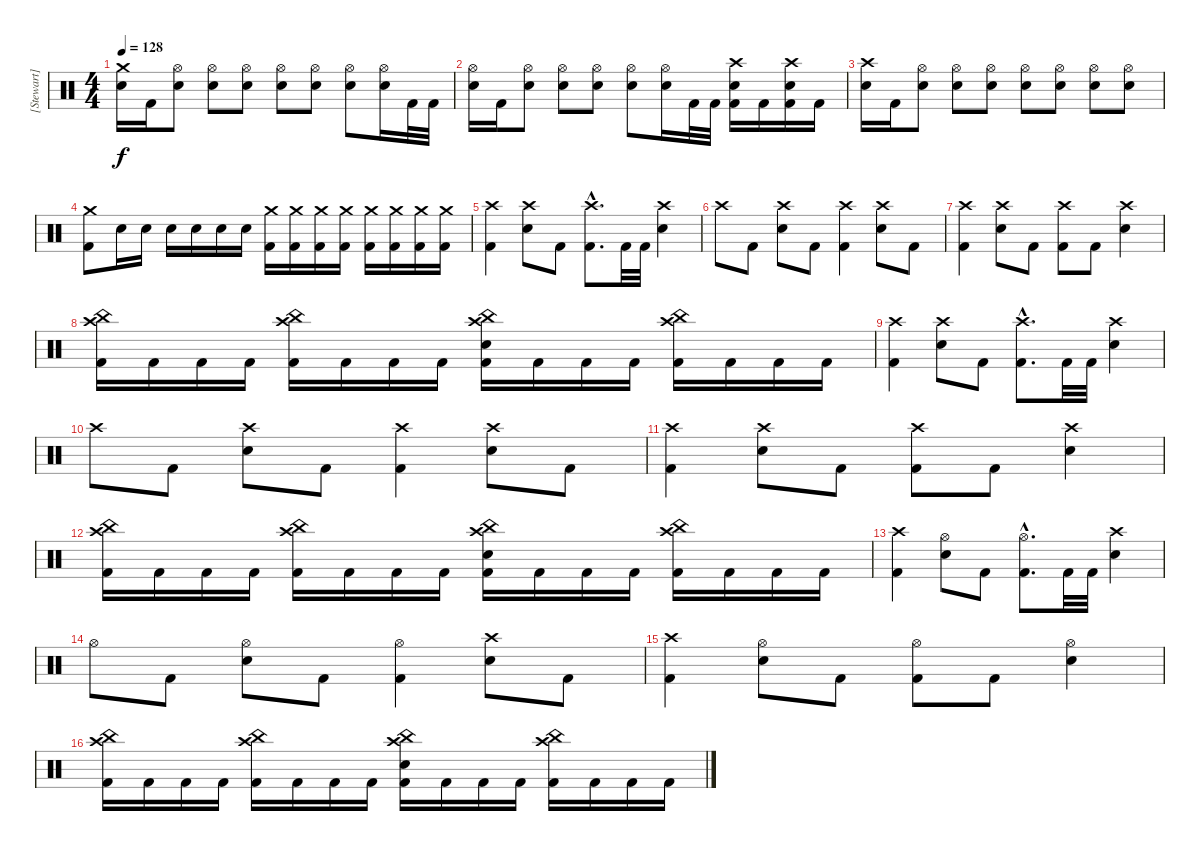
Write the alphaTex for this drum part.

\track ("[Stewart]" "[Stewart]") {instrument percussion}
\staff {score}
\articulation defaults
\ts (4 4)
\tempo 128
\clef neutral
\ks c
("Crash medium (hit)" "Electric Snare (hit)").16{dy f} "Kick (hit) 2".16 ("Hi-Hat (open)" "Electric Snare (hit)").8 ("Hi-Hat (open)" "Electric Snare (hit)").8 ("Hi-Hat (open)" "Electric Snare (hit)").8 ("Hi-Hat (open)" "Electric Snare (hit)").8 ("Hi-Hat (open)" "Electric Snare (hit)").8 ("Hi-Hat (open)" "Electric Snare (hit)").8 ("Hi-Hat (open)" "Electric Snare (hit)").16 "Kick (hit) 2".32 "Kick (hit) 2".32 |
("Hi-Hat (open)" "Electric Snare (hit)").16 "Kick (hit) 2".16 ("Hi-Hat (open)" "Electric Snare (hit)").8 ("Hi-Hat (open)" "Electric Snare (hit)").8 ("Hi-Hat (open)" "Electric Snare (hit)").8 ("Hi-Hat (open)" "Electric Snare (hit)").8 ("Hi-Hat (open)" "Electric Snare (hit)").16 "Kick (hit) 2".32 "Kick (hit) 2".32 ("Crash high (hit)" "Electric Snare (hit)" "Kick (hit) 2").16 "Kick (hit) 2".16 ("Crash high (hit)" "Electric Snare (hit)" "Kick (hit) 2").16 "Kick (hit) 2".16 |
("Crash high (hit)" "Electric Snare (hit)").16 "Kick (hit) 2".16 ("Hi-Hat (open)" "Electric Snare (hit)").8 ("Hi-Hat (open)" "Electric Snare (hit)").8 ("Hi-Hat (open)" "Electric Snare (hit)").8 ("Hi-Hat (open)" "Electric Snare (hit)").8 ("Hi-Hat (open)" "Electric Snare (hit)").8 ("Hi-Hat (open)" "Electric Snare (hit)").8 ("Hi-Hat (open)" "Electric Snare (hit)").8 |
("Crash medium (hit)" "Kick (hit) 2").8 "Electric Snare (hit)".16 "Electric Snare (hit)".16 "Electric Snare (hit)".16 "Electric Snare (hit)".16 "Electric Snare (hit)".16 "Electric Snare (hit)".16 ("Crash medium (hit)" "Kick (hit) 2").16 ("Crash medium (hit)" "Kick (hit) 2").16 ("Crash medium (hit)" "Kick (hit) 2").16 ("Crash medium (hit)" "Kick (hit) 2").16 ("Crash medium (hit)" "Kick (hit) 2").16 ("Crash medium (hit)" "Kick (hit) 2").16 ("Crash medium (hit)" "Kick (hit) 2").16 ("Crash medium (hit)" "Kick (hit) 2").16 |
("Crash high (hit)" "Kick (hit) 2").4 ("Crash high (hit)" "Electric Snare (hit)").8 "Kick (hit) 2".8 ("Crash high (hit)"{hac} "Kick (hit) 2"{hac}).8{d} "Kick (hit) 2".32 "Kick (hit) 2".32 ("Crash high (hit)" "Electric Snare (hit)").4 |
"Crash high (hit)".8 "Kick (hit) 2".8 ("Crash high (hit)" "Electric Snare (hit)").8 "Kick (hit) 2".8 ("Crash high (hit)" "Kick (hit) 2").4 ("Crash high (hit)" "Electric Snare (hit)").8 "Kick (hit) 2".8 |
("Crash high (hit)" "Kick (hit) 2").4 ("Crash high (hit)" "Electric Snare (hit)").8 "Kick (hit) 2".8 ("Crash high (hit)" "Kick (hit) 2").8 "Kick (hit) 2".8 ("Crash high (hit)" "Electric Snare (hit)").4 |
("China (hit)" "Crash high (hit)" "Kick (hit) 2").16 "Kick (hit) 2".16 "Kick (hit) 2".16 "Kick (hit) 2".16 ("China (hit)" "Crash high (hit)" "Kick (hit) 2").16 "Kick (hit) 2".16 "Kick (hit) 2".16 "Kick (hit) 2".16 ("China (hit)" "Crash high (hit)" "Electric Snare (hit)" "Kick (hit) 2").16 "Kick (hit) 2".16 "Kick (hit) 2".16 "Kick (hit) 2".16 ("China (hit)" "Crash high (hit)" "Kick (hit) 2").16 "Kick (hit) 2".16 "Kick (hit) 2".16 "Kick (hit) 2".16 |
("Crash high (hit)" "Kick (hit) 2").4 ("Crash high (hit)" "Electric Snare (hit)").8 "Kick (hit) 2".8 ("Crash high (hit)"{hac} "Kick (hit) 2"{hac}).8{d} "Kick (hit) 2".32 "Kick (hit) 2".32 ("Crash high (hit)" "Electric Snare (hit)").4 |
"Crash high (hit)".8 "Kick (hit) 2".8 ("Crash high (hit)" "Electric Snare (hit)").8 "Kick (hit) 2".8 ("Crash high (hit)" "Kick (hit) 2").4 ("Crash high (hit)" "Electric Snare (hit)").8 "Kick (hit) 2".8 |
("Crash high (hit)" "Kick (hit) 2").4 ("Crash high (hit)" "Electric Snare (hit)").8 "Kick (hit) 2".8 ("Crash high (hit)" "Kick (hit) 2").8 "Kick (hit) 2".8 ("Crash high (hit)" "Electric Snare (hit)").4 |
("China (hit)" "Crash high (hit)" "Kick (hit) 2").16 "Kick (hit) 2".16 "Kick (hit) 2".16 "Kick (hit) 2".16 ("China (hit)" "Crash high (hit)" "Kick (hit) 2").16 "Kick (hit) 2".16 "Kick (hit) 2".16 "Kick (hit) 2".16 ("China (hit)" "Crash high (hit)" "Electric Snare (hit)" "Kick (hit) 2").16 "Kick (hit) 2".16 "Kick (hit) 2".16 "Kick (hit) 2".16 ("China (hit)" "Crash high (hit)" "Kick (hit) 2").16 "Kick (hit) 2".16 "Kick (hit) 2".16 "Kick (hit) 2".16 |
("Crash high (hit)" "Kick (hit) 2").4 ("Hi-Hat (open)" "Electric Snare (hit)").8 "Kick (hit) 2".8 ("Hi-Hat (open)"{hac} "Kick (hit) 2"{hac}).8{d} "Kick (hit) 2".32 "Kick (hit) 2".32 ("Crash high (hit)" "Electric Snare (hit)").4 |
"Hi-Hat (open)".8 "Kick (hit) 2".8 ("Hi-Hat (open)" "Electric Snare (hit)").8 "Kick (hit) 2".8 ("Hi-Hat (open)" "Kick (hit) 2").4 ("Crash high (hit)" "Electric Snare (hit)").8 "Kick (hit) 2".8 |
("Crash high (hit)" "Kick (hit) 2").4 ("Hi-Hat (open)" "Electric Snare (hit)").8 "Kick (hit) 2".8 ("Hi-Hat (open)" "Kick (hit) 2").8 "Kick (hit) 2".8 ("Hi-Hat (open)" "Electric Snare (hit)").4 |
("China (hit)" "Crash high (hit)" "Kick (hit) 2").16 "Kick (hit) 2".16 "Kick (hit) 2".16 "Kick (hit) 2".16 ("China (hit)" "Crash high (hit)" "Kick (hit) 2").16 "Kick (hit) 2".16 "Kick (hit) 2".16 "Kick (hit) 2".16 ("China (hit)" "Crash high (hit)" "Electric Snare (hit)" "Kick (hit) 2").16 "Kick (hit) 2".16 "Kick (hit) 2".16 "Kick (hit) 2".16 ("China (hit)" "Crash high (hit)" "Kick (hit) 2").16 "Kick (hit) 2".16 "Kick (hit) 2".16 "Kick (hit) 2".16
